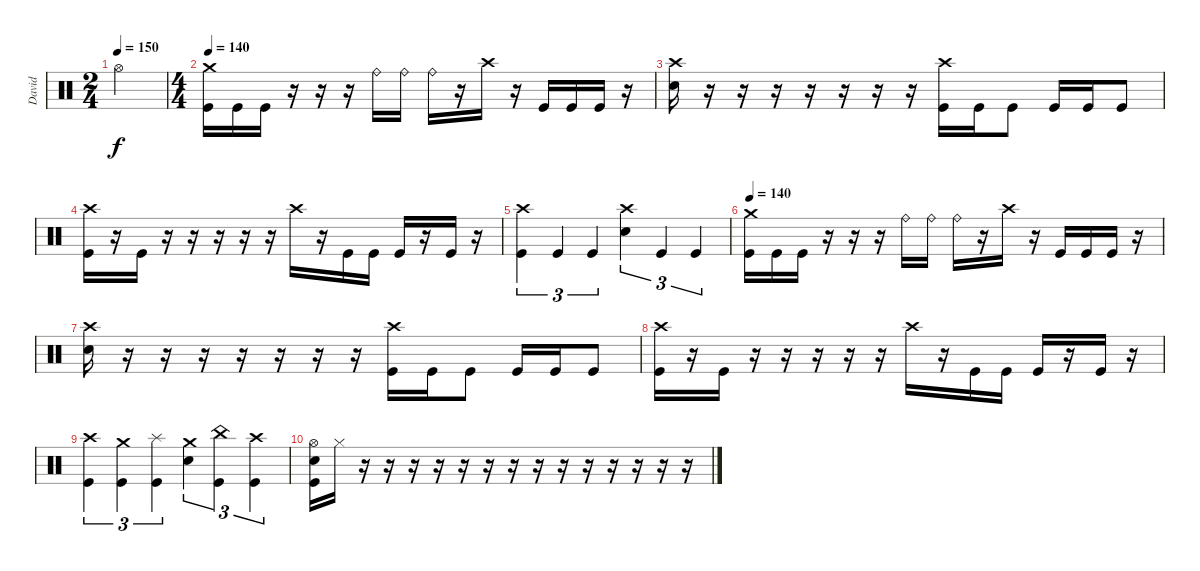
\track ("David" "David") {instrument percussion}
\staff {score}
\articulation defaults
\ts (2 4)
\tempo 150
\clef neutral
\ks c "Hi-Hat (open)".2{dy f}
|
\ts (4 4)
\tempo 160
\tempo 140
("Crash medium (hit)" "Kick (hit)").16 "Kick (hit)".16 "Kick (hit)".16 r.16 r.16 r.16 "Ride (bell)".16 "Ride (bell)".16 "Ride (bell)".16 r.16 "Crash high (hit)".16 r.16 "Kick (hit)".16 "Kick (hit)".16 "Kick (hit)".16 r.16 |
("Crash high (hit)" "Electric Snare (hit)").16 r.16 r.16 r.16 r.16 r.16 r.16 r.16 ("Crash high (hit)" "Kick (hit)").16 "Kick (hit)".16 "Kick (hit)".8 "Kick (hit)".16 "Kick (hit)".16 "Kick (hit)".8 |
("Crash high (hit)" "Kick (hit)").16 r.16 "Kick (hit)".16 r.16 r.16 r.16 r.16 r.16 "Crash high (hit)".16 r.16 "Kick (hit)".16 "Kick (hit)".16 "Kick (hit)".16 r.16 "Kick (hit)".16 r.16 |
("Crash high (hit)" "Kick (hit)").4{tu (3 2)} "Kick (hit)".4{tu (3 2)} "Kick (hit)".4{tu (3 2)} ("Crash high (hit)" "Electric Snare (hit)").4{tu (3 2)} "Kick (hit)".4{tu (3 2)} "Kick (hit)".4{tu (3 2)} |
\tempo 160
\tempo 140
("Crash medium (hit)" "Kick (hit)").16 "Kick (hit)".16 "Kick (hit)".16 r.16 r.16 r.16 "Ride (bell)".16 "Ride (bell)".16 "Ride (bell)".16 r.16 "Crash high (hit)".16 r.16 "Kick (hit)".16 "Kick (hit)".16 "Kick (hit)".16 r.16 |
("Crash high (hit)" "Electric Snare (hit)").16 r.16 r.16 r.16 r.16 r.16 r.16 r.16 ("Crash high (hit)" "Kick (hit)").16 "Kick (hit)".16 "Kick (hit)".8 "Kick (hit)".16 "Kick (hit)".16 "Kick (hit)".8 |
("Crash high (hit)" "Kick (hit)").16 r.16 "Kick (hit)".16 r.16 r.16 r.16 r.16 r.16 "Crash high (hit)".16 r.16 "Kick (hit)".16 "Kick (hit)".16 "Kick (hit)".16 r.16 "Kick (hit)".16 r.16 |
("Crash high (hit)" "Kick (hit)").4{tu (3 2)} ("Crash medium (hit)" "Kick (hit)").4{tu (3 2)} ("Splash (hit)" "Kick (hit)").4{tu (3 2)} ("Crash medium (hit)" "Electric Snare (hit)").4{tu (3 2)} ("China (hit)" "Kick (hit)").4{tu (3 2)} ("Crash high (hit)" "Kick (hit)").4{tu (3 2)} |
("Hi-Hat (open)" "Electric Snare (hit)" "Kick (hit)").16 "Hi-Hat (closed)".16 r.16 r.16 r.16 r.16 r.16 r.16 r.16 r.16 r.16 r.16 r.16 r.16 r.16 r.16
